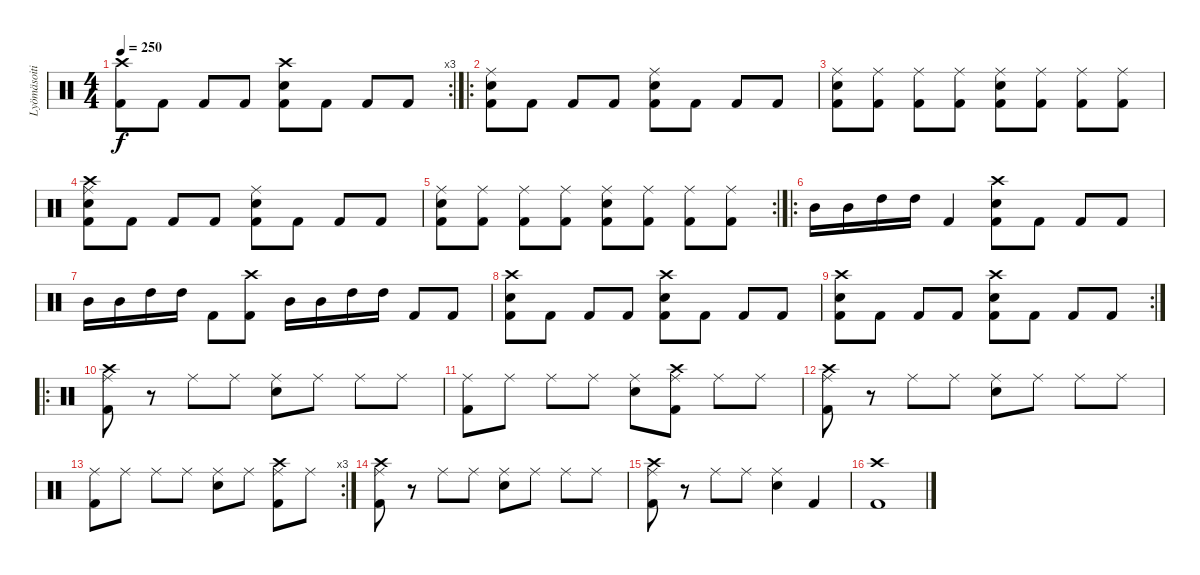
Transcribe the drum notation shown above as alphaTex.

\track ("Lyömäsoitin" "Lyömäsoiti") {instrument percussion}
\staff {score}
\articulation defaults
\rc 3
\ts (4 4)
\tempo 250
\clef neutral
\ks c
("Crash high (hit)" "Kick (hit) 2").8{dy f} "Kick (hit) 2".8 "Kick (hit) 2".8 "Kick (hit) 2".8 ("Crash high (hit)" "Electric Snare (hit)" "Kick (hit) 2").8 "Kick (hit) 2".8 "Kick (hit) 2".8 "Kick (hit) 2".8 |
\ro
("Ride (middle)" "Electric Snare (hit)" "Kick (hit) 2").8 "Kick (hit) 2".8 "Kick (hit) 2".8 "Kick (hit) 2".8 ("Ride (middle)" "Electric Snare (hit)" "Kick (hit) 2").8 "Kick (hit) 2".8 "Kick (hit) 2".8 "Kick (hit) 2".8 |
("Ride (middle)" "Electric Snare (hit)" "Kick (hit) 2").8 ("Ride (middle)" "Kick (hit) 2").8 ("Ride (middle)" "Kick (hit) 2").8 ("Ride (middle)" "Kick (hit) 2").8 ("Ride (middle)" "Electric Snare (hit)" "Kick (hit) 2").8 ("Ride (middle)" "Kick (hit) 2").8 ("Ride (middle)" "Kick (hit) 2").8 ("Ride (middle)" "Kick (hit) 2").8 |
("Crash high (hit)" "Ride (middle)" "Electric Snare (hit)" "Kick (hit) 2").8 "Kick (hit) 2".8 "Kick (hit) 2".8 "Kick (hit) 2".8 ("Ride (middle)" "Electric Snare (hit)" "Kick (hit) 2").8 "Kick (hit) 2".8 "Kick (hit) 2".8 "Kick (hit) 2".8 |
\rc 2
("Ride (middle)" "Electric Snare (hit)" "Kick (hit) 2").8 ("Ride (middle)" "Kick (hit) 2").8 ("Ride (middle)" "Kick (hit) 2").8 ("Ride (middle)" "Kick (hit) 2").8 ("Ride (middle)" "Electric Snare (hit)" "Kick (hit) 2").8 ("Ride (middle)" "Kick (hit) 2").8 ("Ride (middle)" "Kick (hit) 2").8 ("Ride (middle)" "Kick (hit) 2").8 |
\ro "Mid Tom (hit)".16 "Mid Tom (hit)".16 "High Tom (hit)".16 "High Tom (hit)".16 "Kick (hit) 2".4
("Crash high (hit)" "Electric Snare (hit)" "Kick (hit) 2").8 "Kick (hit) 2".8 "Kick (hit) 2".8 "Kick (hit) 2".8 |
"Mid Tom (hit)".16 "Mid Tom (hit)".16 "High Tom (hit)".16 "High Tom (hit)".16 "Kick (hit) 2".8 ("Crash high (hit)" "Kick (hit) 2").8 "Mid Tom (hit)".16 "Mid Tom (hit)".16 "High Tom (hit)".16 "High Tom (hit)".16 "Kick (hit) 2".8 "Kick (hit) 2".8 |
("Crash high (hit)" "Electric Snare (hit)" "Kick (hit) 2").8 "Kick (hit) 2".8 "Kick (hit) 2".8 "Kick (hit) 2".8 ("Crash high (hit)" "Electric Snare (hit)" "Kick (hit) 2").8 "Kick (hit) 2".8 "Kick (hit) 2".8 "Kick (hit) 2".8 |
\rc 2
("Crash high (hit)" "Electric Snare (hit)" "Kick (hit) 2").8 "Kick (hit) 2".8 "Kick (hit) 2".8 "Kick (hit) 2".8 ("Crash high (hit)" "Electric Snare (hit)" "Kick (hit) 2").8 "Kick (hit) 2".8 "Kick (hit) 2".8 "Kick (hit) 2".8 |
\ro
("Crash high (hit)" "Ride (middle)" "Kick (hit) 2").8 r.8 "Ride (middle)".8 "Ride (middle)".8 ("Ride (middle)" "Electric Snare (hit)").8 "Ride (middle)".8 "Ride (middle)".8 "Ride (middle)".8 |
("Ride (middle)" "Kick (hit) 2").8 "Ride (middle)".8 "Ride (middle)".8 "Ride (middle)".8 ("Ride (middle)" "Electric Snare (hit)").8 ("Crash high (hit)" "Ride (middle)" "Kick (hit) 2").8 "Ride (middle)".8 "Ride (middle)".8 |
("Crash high (hit)" "Ride (middle)" "Kick (hit) 2").8 r.8 "Ride (middle)".8 "Ride (middle)".8 ("Ride (middle)" "Electric Snare (hit)").8 "Ride (middle)".8 "Ride (middle)".8 "Ride (middle)".8 |
\rc 3
("Ride (middle)" "Kick (hit) 2").8 "Ride (middle)".8 "Ride (middle)".8 "Ride (middle)".8 ("Ride (middle)" "Electric Snare (hit)").8 "Ride (middle)".8 ("Crash high (hit)" "Ride (middle)" "Kick (hit) 2").8 "Ride (middle)".8 |
("Crash high (hit)" "Ride (middle)" "Kick (hit) 2").8 r.8 "Ride (middle)".8 "Ride (middle)".8 ("Ride (middle)" "Electric Snare (hit)").8 "Ride (middle)".8 "Ride (middle)".8 "Ride (middle)".8 |
("Crash high (hit)" "Ride (middle)" "Kick (hit) 2").8 r.8 "Ride (middle)".8 "Ride (middle)".8 ("Ride (middle)" "Electric Snare (hit)").4 "Kick (hit) 2".4 |
("Crash high (hit)" "Kick (hit) 2").1
